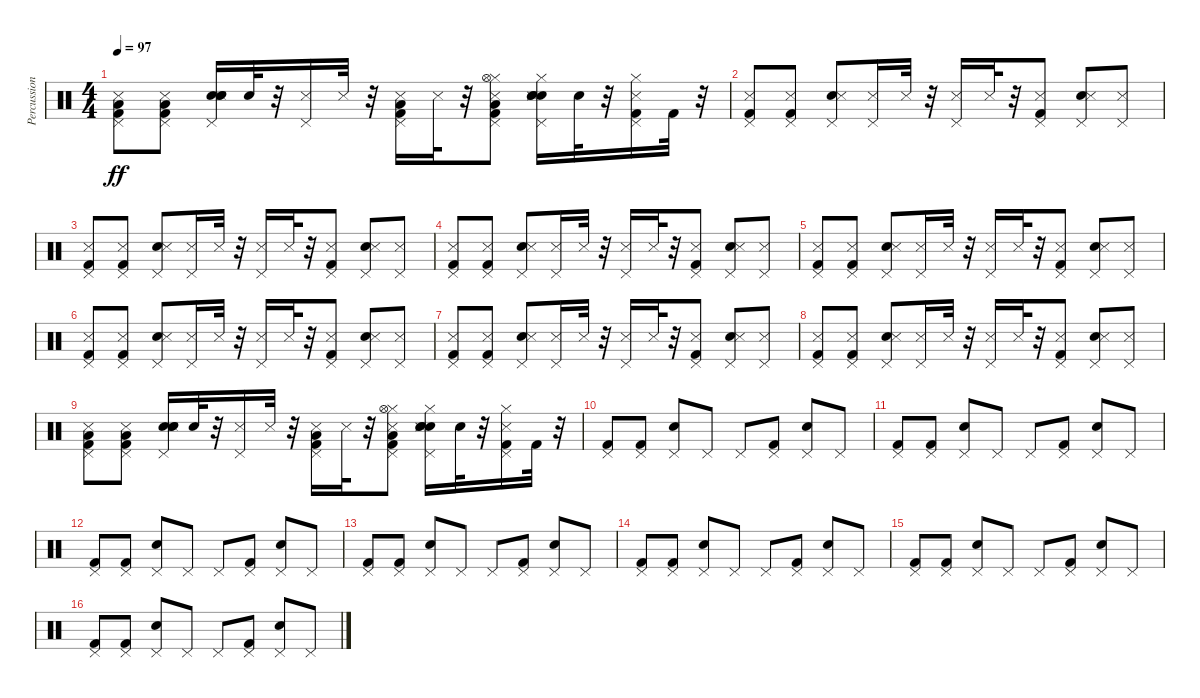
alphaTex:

\track ("Percussion" "Percussion") {instrument percussion}
\staff {score}
\articulation defaults
\ts (4 4)
\tempo 97
\clef neutral
\ks c
("Snare (side stick) 3" "Pedal Hi-Hat (hit)" "Kick (hit) 2" "Low Floor Tom (hit)").8{dy ff} ("Kick (hit) 2" "Pedal Hi-Hat (hit)" "Snare (side stick) 3" "Low Floor Tom (hit)").8 ("Electric Snare (hit)" "Pedal Hi-Hat (hit)" "Snare (side stick) 3" "Snare (hit) 2" "Hand Clap (hit)").16 "Hand Clap (hit)".32 r.32 ("Pedal Hi-Hat (hit)" "Snare (side stick) 3").16 "Snare (side stick) 3".32 r.32 ("Pedal Hi-Hat (hit)" "Snare (side stick) 3" "Kick (hit) 2" "Low Floor Tom (hit)").16 "Snare (side stick) 3".32 r.32 ("Pedal Hi-Hat (hit)" "Kick (hit) 2" "Snare (side stick) 3" "Hi-Hat (closed)" "Hi-Hat (open)" "Low Floor Tom (hit)").8 ("Electric Snare (hit)" "Pedal Hi-Hat (hit)" "Snare (side stick) 3" "Hi-Hat (closed)" "Hand Clap (hit)" "Snare (hit) 2").16 "Hand Clap (hit)".32 r.32 ("Pedal Hi-Hat (hit)" "Snare (side stick) 3" "Kick (hit) 2" "Hi-Hat (closed)").16 "Kick (hit) 2".32 r.32 |
("Kick (hit) 2" "Pedal Hi-Hat (hit)" "Snare (side stick) 3").8 ("Kick (hit) 2" "Pedal Hi-Hat (hit)" "Snare (side stick) 3").8 ("Electric Snare (hit)" "Pedal Hi-Hat (hit)" "Snare (side stick) 3").8 ("Pedal Hi-Hat (hit)" "Snare (side stick) 3").16 "Snare (side stick) 3".32 r.32 ("Pedal Hi-Hat (hit)" "Snare (side stick) 3").16 "Snare (side stick) 3".32 r.32 ("Pedal Hi-Hat (hit)" "Kick (hit) 2" "Snare (side stick) 3").8 ("Electric Snare (hit)" "Pedal Hi-Hat (hit)" "Snare (side stick) 3").8 ("Pedal Hi-Hat (hit)" "Snare (side stick) 3").8 |
("Snare (side stick) 3" "Pedal Hi-Hat (hit)" "Kick (hit) 2").8 ("Kick (hit) 2" "Pedal Hi-Hat (hit)" "Snare (side stick) 3").8 ("Electric Snare (hit)" "Pedal Hi-Hat (hit)" "Snare (side stick) 3").8 ("Pedal Hi-Hat (hit)" "Snare (side stick) 3").16 "Snare (side stick) 3".32 r.32 ("Pedal Hi-Hat (hit)" "Snare (side stick) 3").16 "Snare (side stick) 3".32 r.32 ("Pedal Hi-Hat (hit)" "Kick (hit) 2" "Snare (side stick) 3").8 ("Electric Snare (hit)" "Pedal Hi-Hat (hit)" "Snare (side stick) 3").8 ("Pedal Hi-Hat (hit)" "Snare (side stick) 3").8 |
("Snare (side stick) 3" "Pedal Hi-Hat (hit)" "Kick (hit) 2").8 ("Kick (hit) 2" "Pedal Hi-Hat (hit)" "Snare (side stick) 3").8 ("Electric Snare (hit)" "Pedal Hi-Hat (hit)" "Snare (side stick) 3").8 ("Pedal Hi-Hat (hit)" "Snare (side stick) 3").16 "Snare (side stick) 3".32 r.32 ("Pedal Hi-Hat (hit)" "Snare (side stick) 3").16 "Snare (side stick) 3".32 r.32 ("Pedal Hi-Hat (hit)" "Kick (hit) 2" "Snare (side stick) 3").8 ("Electric Snare (hit)" "Pedal Hi-Hat (hit)" "Snare (side stick) 3").8 ("Pedal Hi-Hat (hit)" "Snare (side stick) 3").8 |
("Snare (side stick) 3" "Pedal Hi-Hat (hit)" "Kick (hit) 2").8 ("Kick (hit) 2" "Pedal Hi-Hat (hit)" "Snare (side stick) 3").8 ("Electric Snare (hit)" "Pedal Hi-Hat (hit)" "Snare (side stick) 3").8 ("Pedal Hi-Hat (hit)" "Snare (side stick) 3").16 "Snare (side stick) 3".32 r.32 ("Pedal Hi-Hat (hit)" "Snare (side stick) 3").16 "Snare (side stick) 3".32 r.32 ("Pedal Hi-Hat (hit)" "Kick (hit) 2" "Snare (side stick) 3").8 ("Electric Snare (hit)" "Pedal Hi-Hat (hit)" "Snare (side stick) 3").8 ("Pedal Hi-Hat (hit)" "Snare (side stick) 3").8 |
("Kick (hit) 2" "Pedal Hi-Hat (hit)" "Snare (side stick) 3").8 ("Kick (hit) 2" "Pedal Hi-Hat (hit)" "Snare (side stick) 3").8 ("Electric Snare (hit)" "Pedal Hi-Hat (hit)" "Snare (side stick) 3").8 ("Pedal Hi-Hat (hit)" "Snare (side stick) 3").16 "Snare (side stick) 3".32 r.32 ("Pedal Hi-Hat (hit)" "Snare (side stick) 3").16 "Snare (side stick) 3".32 r.32 ("Pedal Hi-Hat (hit)" "Kick (hit) 2" "Snare (side stick) 3").8 ("Electric Snare (hit)" "Pedal Hi-Hat (hit)" "Snare (side stick) 3").8 ("Pedal Hi-Hat (hit)" "Snare (side stick) 3").8 |
("Snare (side stick) 3" "Pedal Hi-Hat (hit)" "Kick (hit) 2").8 ("Kick (hit) 2" "Pedal Hi-Hat (hit)" "Snare (side stick) 3").8 ("Electric Snare (hit)" "Pedal Hi-Hat (hit)" "Snare (side stick) 3").8 ("Pedal Hi-Hat (hit)" "Snare (side stick) 3").16 "Snare (side stick) 3".32 r.32 ("Pedal Hi-Hat (hit)" "Snare (side stick) 3").16 "Snare (side stick) 3".32 r.32 ("Pedal Hi-Hat (hit)" "Kick (hit) 2" "Snare (side stick) 3").8 ("Electric Snare (hit)" "Pedal Hi-Hat (hit)" "Snare (side stick) 3").8 ("Pedal Hi-Hat (hit)" "Snare (side stick) 3").8 |
("Kick (hit) 2" "Pedal Hi-Hat (hit)" "Snare (side stick) 3").8 ("Kick (hit) 2" "Pedal Hi-Hat (hit)" "Snare (side stick) 3").8 ("Electric Snare (hit)" "Pedal Hi-Hat (hit)" "Snare (side stick) 3").8 ("Pedal Hi-Hat (hit)" "Snare (side stick) 3").16 "Snare (side stick) 3".32 r.32 ("Pedal Hi-Hat (hit)" "Snare (side stick) 3").16 "Snare (side stick) 3".32 r.32 ("Pedal Hi-Hat (hit)" "Kick (hit) 2" "Snare (side stick) 3").8 ("Electric Snare (hit)" "Pedal Hi-Hat (hit)" "Snare (side stick) 3").8 ("Pedal Hi-Hat (hit)" "Snare (side stick) 3").8 |
("Low Floor Tom (hit)" "Kick (hit) 2" "Pedal Hi-Hat (hit)" "Snare (side stick) 3").8 ("Kick (hit) 2" "Pedal Hi-Hat (hit)" "Snare (side stick) 3" "Low Floor Tom (hit)").8 ("Electric Snare (hit)" "Pedal Hi-Hat (hit)" "Snare (side stick) 3" "Snare (hit) 2" "Hand Clap (hit)").16 "Hand Clap (hit)".32 r.32 ("Pedal Hi-Hat (hit)" "Snare (side stick) 3").16 "Snare (side stick) 3".32 r.32 ("Pedal Hi-Hat (hit)" "Snare (side stick) 3" "Kick (hit) 2" "Low Floor Tom (hit)").16 "Snare (side stick) 3".32 r.32 ("Pedal Hi-Hat (hit)" "Kick (hit) 2" "Snare (side stick) 3" "Hi-Hat (closed)" "Hi-Hat (open)" "Low Floor Tom (hit)").8 ("Electric Snare (hit)" "Pedal Hi-Hat (hit)" "Snare (side stick) 3" "Hi-Hat (closed)" "Hand Clap (hit)" "Snare (hit) 2").16 "Hand Clap (hit)".32 r.32 ("Pedal Hi-Hat (hit)" "Snare (side stick) 3" "Kick (hit) 2" "Hi-Hat (closed)").16 "Kick (hit) 2".32 r.32 |
("Kick (hit) 2" "Pedal Hi-Hat (hit)").8 ("Kick (hit) 2" "Pedal Hi-Hat (hit)").8 ("Electric Snare (hit)" "Pedal Hi-Hat (hit)").8 "Pedal Hi-Hat (hit)".8 "Pedal Hi-Hat (hit)".8 ("Kick (hit) 2" "Pedal Hi-Hat (hit)").8 ("Electric Snare (hit)" "Pedal Hi-Hat (hit)").8 "Pedal Hi-Hat (hit)".8 |
("Pedal Hi-Hat (hit)" "Kick (hit) 2").8 ("Kick (hit) 2" "Pedal Hi-Hat (hit)").8 ("Electric Snare (hit)" "Pedal Hi-Hat (hit)").8 "Pedal Hi-Hat (hit)".8 "Pedal Hi-Hat (hit)".8 ("Kick (hit) 2" "Pedal Hi-Hat (hit)").8 ("Electric Snare (hit)" "Pedal Hi-Hat (hit)").8 "Pedal Hi-Hat (hit)".8 |
("Pedal Hi-Hat (hit)" "Kick (hit) 2").8 ("Kick (hit) 2" "Pedal Hi-Hat (hit)").8 ("Electric Snare (hit)" "Pedal Hi-Hat (hit)").8 "Pedal Hi-Hat (hit)".8 "Pedal Hi-Hat (hit)".8 ("Kick (hit) 2" "Pedal Hi-Hat (hit)").8 ("Electric Snare (hit)" "Pedal Hi-Hat (hit)").8 "Pedal Hi-Hat (hit)".8 |
("Pedal Hi-Hat (hit)" "Kick (hit) 2").8 ("Kick (hit) 2" "Pedal Hi-Hat (hit)").8 ("Electric Snare (hit)" "Pedal Hi-Hat (hit)").8 "Pedal Hi-Hat (hit)".8 "Pedal Hi-Hat (hit)".8 ("Kick (hit) 2" "Pedal Hi-Hat (hit)").8 ("Electric Snare (hit)" "Pedal Hi-Hat (hit)").8 "Pedal Hi-Hat (hit)".8 |
("Kick (hit) 2" "Pedal Hi-Hat (hit)").8 ("Kick (hit) 2" "Pedal Hi-Hat (hit)").8 ("Electric Snare (hit)" "Pedal Hi-Hat (hit)").8 "Pedal Hi-Hat (hit)".8 "Pedal Hi-Hat (hit)".8 ("Kick (hit) 2" "Pedal Hi-Hat (hit)").8 ("Electric Snare (hit)" "Pedal Hi-Hat (hit)").8 "Pedal Hi-Hat (hit)".8 |
("Kick (hit) 2" "Pedal Hi-Hat (hit)").8 ("Kick (hit) 2" "Pedal Hi-Hat (hit)").8 ("Electric Snare (hit)" "Pedal Hi-Hat (hit)").8 "Pedal Hi-Hat (hit)".8 "Pedal Hi-Hat (hit)".8 ("Kick (hit) 2" "Pedal Hi-Hat (hit)").8 ("Electric Snare (hit)" "Pedal Hi-Hat (hit)").8 "Pedal Hi-Hat (hit)".8 |
("Kick (hit) 2" "Pedal Hi-Hat (hit)").8 ("Kick (hit) 2" "Pedal Hi-Hat (hit)").8 ("Electric Snare (hit)" "Pedal Hi-Hat (hit)").8 "Pedal Hi-Hat (hit)".8 "Pedal Hi-Hat (hit)".8 ("Kick (hit) 2" "Pedal Hi-Hat (hit)").8 ("Electric Snare (hit)" "Pedal Hi-Hat (hit)").8 "Pedal Hi-Hat (hit)".8
